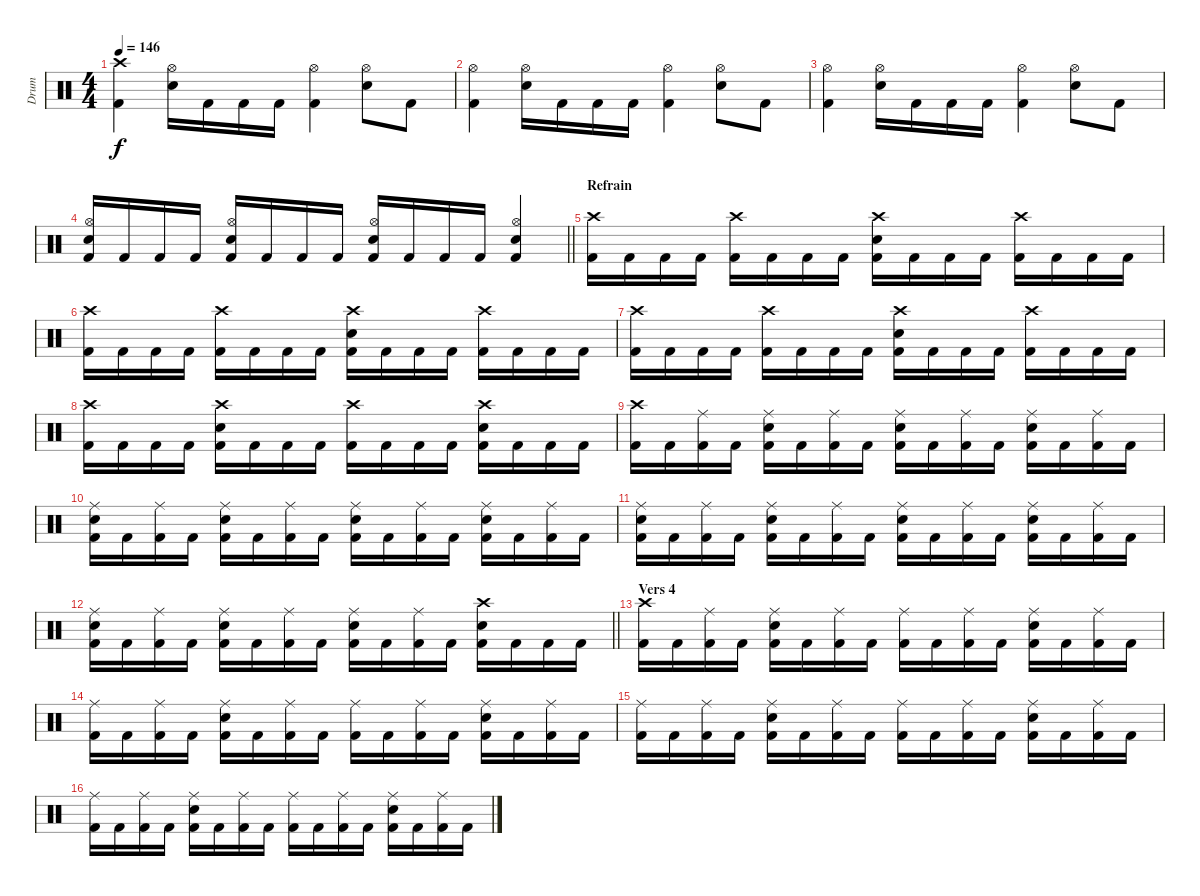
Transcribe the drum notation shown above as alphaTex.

\track ("Drum" "Drum") {instrument percussion}
\staff {score}
\articulation defaults
\ts (4 4)
\tempo 146
\clef neutral
\ks c
("Crash high (hit)" "Kick (hit) 2").4{dy f} ("Hi-Hat (open)" "Electric Snare (hit)").16 "Kick (hit) 2".16 "Kick (hit) 2".16 "Kick (hit) 2".16 ("Hi-Hat (open)" "Kick (hit) 2").4 ("Hi-Hat (open)" "Electric Snare (hit)").8 "Kick (hit) 2".8 |
("Hi-Hat (open)" "Kick (hit) 2").4 ("Hi-Hat (open)" "Electric Snare (hit)").16 "Kick (hit) 2".16 "Kick (hit) 2".16 "Kick (hit) 2".16 ("Hi-Hat (open)" "Kick (hit) 2").4 ("Hi-Hat (open)" "Electric Snare (hit)").8 "Kick (hit) 2".8 |
("Hi-Hat (open)" "Kick (hit) 2").4 ("Hi-Hat (open)" "Electric Snare (hit)").16 "Kick (hit) 2".16 "Kick (hit) 2".16 "Kick (hit) 2".16 ("Hi-Hat (open)" "Kick (hit) 2").4 ("Hi-Hat (open)" "Electric Snare (hit)").8 "Kick (hit) 2".8 |
\barLineRight lightlight
("Hi-Hat (open)" "Electric Snare (hit)" "Kick (hit) 2").16 "Kick (hit) 2".16 "Kick (hit) 2".16 "Kick (hit) 2".16 ("Hi-Hat (open)" "Electric Snare (hit)" "Kick (hit) 2").16 "Kick (hit) 2".16 "Kick (hit) 2".16 "Kick (hit) 2".16 ("Hi-Hat (open)" "Electric Snare (hit)" "Kick (hit) 2").16 "Kick (hit) 2".16 "Kick (hit) 2".16 "Kick (hit) 2".16 ("Hi-Hat (open)" "Electric Snare (hit)" "Kick (hit) 2").4 |
\section ("" "Refrain")
("Crash high (hit)" "Kick (hit) 2").16 "Kick (hit) 2".16 "Kick (hit) 2".16 "Kick (hit) 2".16 ("Crash high (hit)" "Kick (hit) 2").16 "Kick (hit) 2".16 "Kick (hit) 2".16 "Kick (hit) 2".16 ("Crash high (hit)" "Electric Snare (hit)" "Kick (hit) 2").16 "Kick (hit) 2".16 "Kick (hit) 2".16 "Kick (hit) 2".16 ("Crash high (hit)" "Kick (hit) 2").16 "Kick (hit) 2".16 "Kick (hit) 2".16 "Kick (hit) 2".16 |
("Crash high (hit)" "Kick (hit) 2").16 "Kick (hit) 2".16 "Kick (hit) 2".16 "Kick (hit) 2".16 ("Crash high (hit)" "Kick (hit) 2").16 "Kick (hit) 2".16 "Kick (hit) 2".16 "Kick (hit) 2".16 ("Crash high (hit)" "Electric Snare (hit)" "Kick (hit) 2").16 "Kick (hit) 2".16 "Kick (hit) 2".16 "Kick (hit) 2".16 ("Crash high (hit)" "Kick (hit) 2").16 "Kick (hit) 2".16 "Kick (hit) 2".16 "Kick (hit) 2".16 |
("Crash high (hit)" "Kick (hit) 2").16 "Kick (hit) 2".16 "Kick (hit) 2".16 "Kick (hit) 2".16 ("Crash high (hit)" "Kick (hit) 2").16 "Kick (hit) 2".16 "Kick (hit) 2".16 "Kick (hit) 2".16 ("Crash high (hit)" "Electric Snare (hit)" "Kick (hit) 2").16 "Kick (hit) 2".16 "Kick (hit) 2".16 "Kick (hit) 2".16 ("Crash high (hit)" "Kick (hit) 2").16 "Kick (hit) 2".16 "Kick (hit) 2".16 "Kick (hit) 2".16 |
("Crash high (hit)" "Kick (hit) 2").16 "Kick (hit) 2".16 "Kick (hit) 2".16 "Kick (hit) 2".16 ("Crash high (hit)" "Electric Snare (hit)" "Kick (hit) 2").16 "Kick (hit) 2".16 "Kick (hit) 2".16 "Kick (hit) 2".16 ("Crash high (hit)" "Kick (hit) 2").16 "Kick (hit) 2".16 "Kick (hit) 2".16 "Kick (hit) 2".16 ("Crash high (hit)" "Electric Snare (hit)" "Kick (hit) 2").16 "Kick (hit) 2".16 "Kick (hit) 2".16 "Kick (hit) 2".16 |
("Crash high (hit)" "Kick (hit) 2").16 "Kick (hit) 2".16 ("Ride (middle)" "Kick (hit) 2").16 "Kick (hit) 2".16 ("Ride (middle)" "Electric Snare (hit)" "Kick (hit) 2").16 "Kick (hit) 2".16 ("Ride (middle)" "Kick (hit) 2").16 "Kick (hit) 2".16 ("Ride (middle)" "Electric Snare (hit)" "Kick (hit) 2").16 "Kick (hit) 2".16 ("Ride (middle)" "Kick (hit) 2").16 "Kick (hit) 2".16 ("Ride (middle)" "Electric Snare (hit)" "Kick (hit) 2").16 "Kick (hit) 2".16 ("Ride (middle)" "Kick (hit) 2").16 "Kick (hit) 2".16 |
("Ride (middle)" "Electric Snare (hit)" "Kick (hit) 2").16 "Kick (hit) 2".16 ("Ride (middle)" "Kick (hit) 2").16 "Kick (hit) 2".16 ("Ride (middle)" "Electric Snare (hit)" "Kick (hit) 2").16 "Kick (hit) 2".16 ("Ride (middle)" "Kick (hit) 2").16 "Kick (hit) 2".16 ("Ride (middle)" "Electric Snare (hit)" "Kick (hit) 2").16 "Kick (hit) 2".16 ("Ride (middle)" "Kick (hit) 2").16 "Kick (hit) 2".16 ("Ride (middle)" "Electric Snare (hit)" "Kick (hit) 2").16 "Kick (hit) 2".16 ("Ride (middle)" "Kick (hit) 2").16 "Kick (hit) 2".16 |
("Ride (middle)" "Electric Snare (hit)" "Kick (hit) 2").16 "Kick (hit) 2".16 ("Ride (middle)" "Kick (hit) 2").16 "Kick (hit) 2".16 ("Ride (middle)" "Electric Snare (hit)" "Kick (hit) 2").16 "Kick (hit) 2".16 ("Ride (middle)" "Kick (hit) 2").16 "Kick (hit) 2".16 ("Ride (middle)" "Electric Snare (hit)" "Kick (hit) 2").16 "Kick (hit) 2".16 ("Ride (middle)" "Kick (hit) 2").16 "Kick (hit) 2".16 ("Ride (middle)" "Electric Snare (hit)" "Kick (hit) 2").16 "Kick (hit) 2".16 ("Ride (middle)" "Kick (hit) 2").16 "Kick (hit) 2".16 |
\barLineRight lightlight
("Ride (middle)" "Electric Snare (hit)" "Kick (hit) 2").16 "Kick (hit) 2".16 ("Ride (middle)" "Kick (hit) 2").16 "Kick (hit) 2".16 ("Ride (middle)" "Electric Snare (hit)" "Kick (hit) 2").16 "Kick (hit) 2".16 ("Ride (middle)" "Kick (hit) 2").16 "Kick (hit) 2".16 ("Ride (middle)" "Electric Snare (hit)" "Kick (hit) 2").16 "Kick (hit) 2".16 ("Ride (middle)" "Kick (hit) 2").16 "Kick (hit) 2".16 ("Crash high (hit)" "Electric Snare (hit)" "Kick (hit) 2").16 "Kick (hit) 2".16 "Kick (hit) 2".16 "Kick (hit) 2".16 |
\section ("" "Vers 4")
("Crash high (hit)" "Kick (hit) 2").16 "Kick (hit) 2".16 ("Ride (middle)" "Kick (hit) 2").16 "Kick (hit) 2".16 ("Ride (middle)" "Electric Snare (hit)" "Kick (hit) 2").16 "Kick (hit) 2".16 ("Ride (middle)" "Kick (hit) 2").16 "Kick (hit) 2".16 ("Ride (middle)" "Kick (hit) 2").16 "Kick (hit) 2".16 ("Ride (middle)" "Kick (hit) 2").16 "Kick (hit) 2".16 ("Ride (middle)" "Electric Snare (hit)" "Kick (hit) 2").16 "Kick (hit) 2".16 ("Ride (middle)" "Kick (hit) 2").16 "Kick (hit) 2".16 |
("Ride (middle)" "Kick (hit) 2").16 "Kick (hit) 2".16 ("Ride (middle)" "Kick (hit) 2").16 "Kick (hit) 2".16 ("Ride (middle)" "Electric Snare (hit)" "Kick (hit) 2").16 "Kick (hit) 2".16 ("Ride (middle)" "Kick (hit) 2").16 "Kick (hit) 2".16 ("Ride (middle)" "Kick (hit) 2").16 "Kick (hit) 2".16 ("Ride (middle)" "Kick (hit) 2").16 "Kick (hit) 2".16 ("Ride (middle)" "Electric Snare (hit)" "Kick (hit) 2").16 "Kick (hit) 2".16 ("Ride (middle)" "Kick (hit) 2").16 "Kick (hit) 2".16 |
("Ride (middle)" "Kick (hit) 2").16 "Kick (hit) 2".16 ("Ride (middle)" "Kick (hit) 2").16 "Kick (hit) 2".16 ("Ride (middle)" "Electric Snare (hit)" "Kick (hit) 2").16 "Kick (hit) 2".16 ("Ride (middle)" "Kick (hit) 2").16 "Kick (hit) 2".16 ("Ride (middle)" "Kick (hit) 2").16 "Kick (hit) 2".16 ("Ride (middle)" "Kick (hit) 2").16 "Kick (hit) 2".16 ("Ride (middle)" "Electric Snare (hit)" "Kick (hit) 2").16 "Kick (hit) 2".16 ("Ride (middle)" "Kick (hit) 2").16 "Kick (hit) 2".16 |
("Ride (middle)" "Kick (hit) 2").16 "Kick (hit) 2".16 ("Ride (middle)" "Kick (hit) 2").16 "Kick (hit) 2".16 ("Ride (middle)" "Electric Snare (hit)" "Kick (hit) 2").16 "Kick (hit) 2".16 ("Ride (middle)" "Kick (hit) 2").16 "Kick (hit) 2".16 ("Ride (middle)" "Kick (hit) 2").16 "Kick (hit) 2".16 ("Ride (middle)" "Kick (hit) 2").16 "Kick (hit) 2".16 ("Ride (middle)" "Electric Snare (hit)" "Kick (hit) 2").16 "Kick (hit) 2".16 ("Ride (middle)" "Kick (hit) 2").16 "Kick (hit) 2".16
